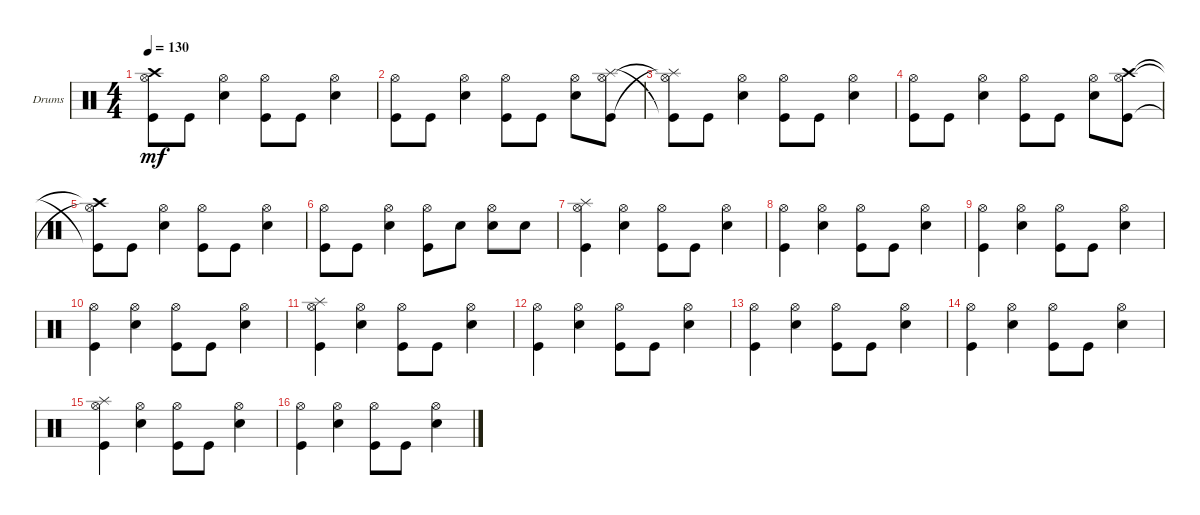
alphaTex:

\defaultSystemsLayout 4
\bracketExtendMode groupsimilarinstruments
\firstSystemTrackNameOrientation horizontal
\otherSystemsTrackNameOrientation horizontal
\track ("Drumkit" "Drums") {instrument percussion}
\staff {score}
\articulation defaults
\ts (4 4)
\tempo 130
\clef neutral
\ks c
("Hi-Hat (open)"{t} "Kick (hit)"{t} "Crash high (hit)"{t}).8{dy mf} "Kick (hit)".8 ("Snare (hit) 2" "Hi-Hat (open)").4 ("Kick (hit)" "Hi-Hat (open)").8 "Kick (hit)".8 ("Snare (hit) 2" "Hi-Hat (open)").4 |
("Hi-Hat (open)" "Kick (hit)").8 "Kick (hit)".8 ("Snare (hit) 2" "Hi-Hat (open)").4 ("Kick (hit)" "Hi-Hat (open)").8 "Kick (hit)".8 ("Snare (hit) 2" "Hi-Hat (open)").8 ("Kick (hit)" "Hi-Hat (open)" "Splash (hit)").8 |
("Splash (hit)"{t} "Hi-Hat (open)"{t} "Kick (hit)"{t}).8 "Kick (hit)".8 ("Snare (hit) 2" "Hi-Hat (open)").4 ("Kick (hit)" "Hi-Hat (open)").8 "Kick (hit)".8 ("Snare (hit) 2" "Hi-Hat (open)").4 |
("Hi-Hat (open)" "Kick (hit)").8 "Kick (hit)".8 ("Snare (hit) 2" "Hi-Hat (open)").4 ("Kick (hit)" "Hi-Hat (open)").8 "Kick (hit)".8 ("Snare (hit) 2" "Hi-Hat (open)").8 ("Kick (hit)" "Crash high (hit)" "Hi-Hat (open)").8 |
("Hi-Hat (open)"{t} "Kick (hit)"{t} "Crash high (hit)"{t}).8 "Kick (hit)".8 ("Snare (hit) 2" "Hi-Hat (open)").4 ("Kick (hit)" "Hi-Hat (open)").8 "Kick (hit)".8 ("Snare (hit) 2" "Hi-Hat (open)").4 |
("Hi-Hat (open)" "Kick (hit)").8 "Kick (hit)".8 ("Snare (hit) 2" "Hi-Hat (open)").4 ("Kick (hit)" "Hi-Hat (open)").8 "Snare (hit) 2".8 ("Snare (hit) 2" "Hi-Hat (open)").8 "Snare (hit) 2".8 |
("Splash (hit)" "Hi-Hat (open)" "Kick (hit)").4 ("Snare (hit) 2" "Hi-Hat (open)").4 ("Kick (hit)" "Hi-Hat (open)").8 "Kick (hit)".8 ("Snare (hit) 2" "Hi-Hat (open)").4 |
("Hi-Hat (open)" "Kick (hit)").4 ("Snare (hit) 2" "Hi-Hat (open)").4 ("Kick (hit)" "Hi-Hat (open)").8 "Kick (hit)".8 ("Snare (hit) 2" "Hi-Hat (open)").4 |
("Hi-Hat (open)" "Kick (hit)").4 ("Snare (hit) 2" "Hi-Hat (open)").4 ("Kick (hit)" "Hi-Hat (open)").8 "Kick (hit)".8 ("Snare (hit) 2" "Hi-Hat (open)").4 |
("Hi-Hat (open)" "Kick (hit)").4 ("Snare (hit) 2" "Hi-Hat (open)").4 ("Kick (hit)" "Hi-Hat (open)").8 "Kick (hit)".8 ("Snare (hit) 2" "Hi-Hat (open)").4 |
("Splash (hit)" "Hi-Hat (open)" "Kick (hit)").4 ("Snare (hit) 2" "Hi-Hat (open)").4 ("Kick (hit)" "Hi-Hat (open)").8 "Kick (hit)".8 ("Snare (hit) 2" "Hi-Hat (open)").4 |
("Hi-Hat (open)" "Kick (hit)").4 ("Snare (hit) 2" "Hi-Hat (open)").4 ("Kick (hit)" "Hi-Hat (open)").8 "Kick (hit)".8 ("Snare (hit) 2" "Hi-Hat (open)").4 |
("Hi-Hat (open)" "Kick (hit)").4 ("Snare (hit) 2" "Hi-Hat (open)").4 ("Kick (hit)" "Hi-Hat (open)").8 "Kick (hit)".8 ("Snare (hit) 2" "Hi-Hat (open)").4 |
("Hi-Hat (open)" "Kick (hit)").4 ("Snare (hit) 2" "Hi-Hat (open)").4 ("Kick (hit)" "Hi-Hat (open)").8 "Kick (hit)".8 ("Snare (hit) 2" "Hi-Hat (open)").4 |
("Splash (hit)" "Hi-Hat (open)" "Kick (hit)").4 ("Snare (hit) 2" "Hi-Hat (open)").4 ("Kick (hit)" "Hi-Hat (open)").8 "Kick (hit)".8 ("Snare (hit) 2" "Hi-Hat (open)").4 |
("Hi-Hat (open)" "Kick (hit)").4 ("Snare (hit) 2" "Hi-Hat (open)").4 ("Kick (hit)" "Hi-Hat (open)").8 "Kick (hit)".8 ("Snare (hit) 2" "Hi-Hat (open)").4
